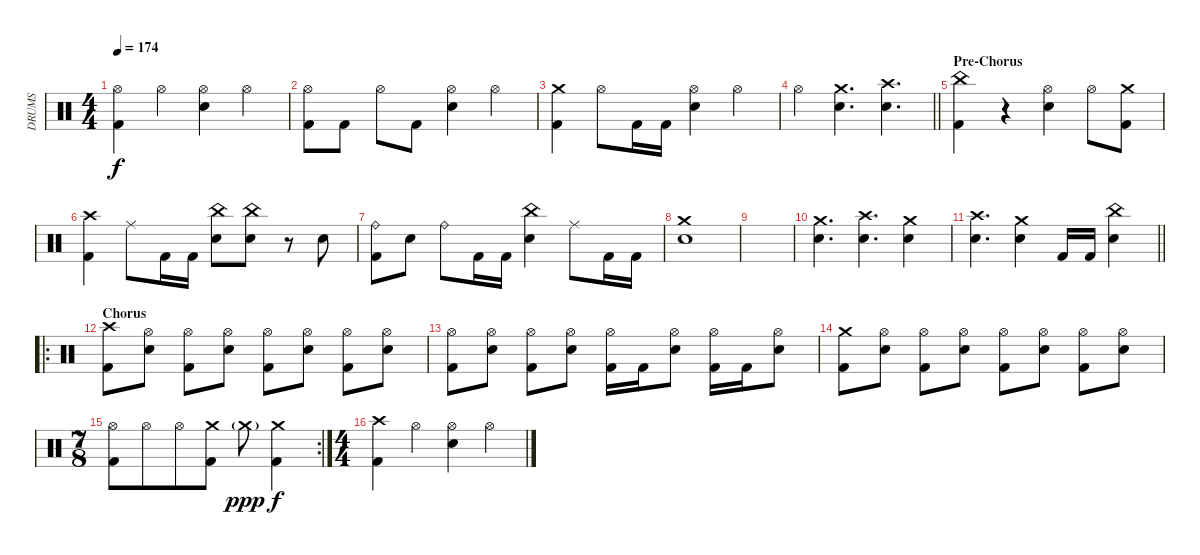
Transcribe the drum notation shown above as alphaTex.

\track ("DRUMS" "DRUMS") {instrument percussion}
\staff {score}
\articulation defaults
\ts (4 4)
\tempo 174
\clef neutral
\ks c
("Hi-Hat (open)" "Kick (hit) 2").4{dy f} "Hi-Hat (open)".4 ("Hi-Hat (open)" "Snare (hit) 2").4 "Hi-Hat (open)".4 |
("Hi-Hat (open)" "Kick (hit) 2").8 "Kick (hit) 2".8 "Hi-Hat (open)".8 "Kick (hit) 2".8 ("Hi-Hat (open)" "Snare (hit) 2").4 "Hi-Hat (open)".4 |
("Crash medium (hit)" "Kick (hit) 2").4 "Hi-Hat (open)".8 "Kick (hit) 2".16 "Kick (hit) 2".16 ("Hi-Hat (open)" "Snare (hit) 2").4 "Hi-Hat (open)".4 |
\barLineRight lightlight "Hi-Hat (open)".4
("Crash medium (hit)" "Snare (hit) 2").4{d} ("Crash high (hit)" "Snare (hit) 2").4{d} |
\section ("" "Pre-Chorus")
("China (hit)" "Kick (hit) 2").4 r.4 ("Hi-Hat (open)" "Snare (hit) 2").4 "Hi-Hat (open)".8 ("Crash medium (hit)" "Kick (hit) 2").8 |
("Crash high (hit)" "Kick (hit) 2").4 "Ride (middle)".8 "Kick (hit) 2".16 "Kick (hit) 2".16 ("China (hit)" "Snare (hit) 2").8 ("China (hit)" "Snare (hit) 2").8 r.8 "Snare (hit) 2".8 |
("Ride (bell)" "Kick (hit) 2").8 "Snare (hit) 2".8 "Ride (bell)".8 "Kick (hit) 2".16 "Kick (hit) 2".16 ("China (hit)" "Snare (hit) 2").4 "Ride (middle)".8 "Kick (hit) 2".16 "Kick (hit) 2".16 |
("Crash medium (hit)" "Snare (hit) 2").1 |
|
("Crash medium (hit)" "Snare (hit) 2").4{d} ("Crash high (hit)" "Snare (hit) 2").4{d} ("Crash medium (hit)" "Snare (hit) 2").4 |
\barLineRight lightlight
("Crash high (hit)" "Snare (hit) 2").4{d} ("Crash medium (hit)" "Snare (hit) 2").4 "Kick (hit) 2".16 "Kick (hit) 2".16 ("China (hit)" "Snare (hit) 2").4 |
\ro
\section ("" "Chorus")
("Crash high (hit)" "Kick (hit) 2").8 ("Hi-Hat (open)" "Snare (hit) 2").8 ("Hi-Hat (open)" "Kick (hit) 2").8 ("Hi-Hat (open)" "Snare (hit) 2").8 ("Hi-Hat (open)" "Kick (hit) 2").8 ("Hi-Hat (open)" "Snare (hit) 2").8 ("Hi-Hat (open)" "Kick (hit) 2").8 ("Hi-Hat (open)" "Snare (hit) 2").8 |
("Hi-Hat (open)" "Kick (hit) 2").8 ("Hi-Hat (open)" "Snare (hit) 2").8 ("Hi-Hat (open)" "Kick (hit) 2").8 ("Hi-Hat (open)" "Snare (hit) 2").8 ("Hi-Hat (open)" "Kick (hit) 2").16 "Kick (hit) 2".16 ("Hi-Hat (open)" "Snare (hit) 2").8 ("Hi-Hat (open)" "Kick (hit) 2").16 "Kick (hit) 2".16 ("Hi-Hat (open)" "Snare (hit) 2").8 |
("Crash medium (hit)" "Kick (hit) 2").8 ("Hi-Hat (open)" "Snare (hit) 2").8 ("Hi-Hat (open)" "Kick (hit) 2").8 ("Hi-Hat (open)" "Snare (hit) 2").8 ("Hi-Hat (open)" "Kick (hit) 2").8 ("Hi-Hat (open)" "Snare (hit) 2").8 ("Hi-Hat (open)" "Kick (hit) 2").8 ("Hi-Hat (open)" "Snare (hit) 2").8 |
\rc 2
\ts (7 8)
("Hi-Hat (open)" "Kick (hit) 2").8 "Hi-Hat (open)".8 "Hi-Hat (open)".8 ("Crash medium (hit)" "Kick (hit) 2").8 "Crash medium (hit)"{g}.8{dy ppp} ("Crash medium (hit)" "Kick (hit) 2").4{dy f} |
\ts (4 4)
("Crash high (hit)" "Kick (hit) 2").4 "Hi-Hat (open)".4 ("Hi-Hat (open)" "Snare (hit) 2").4 "Hi-Hat (open)".4
